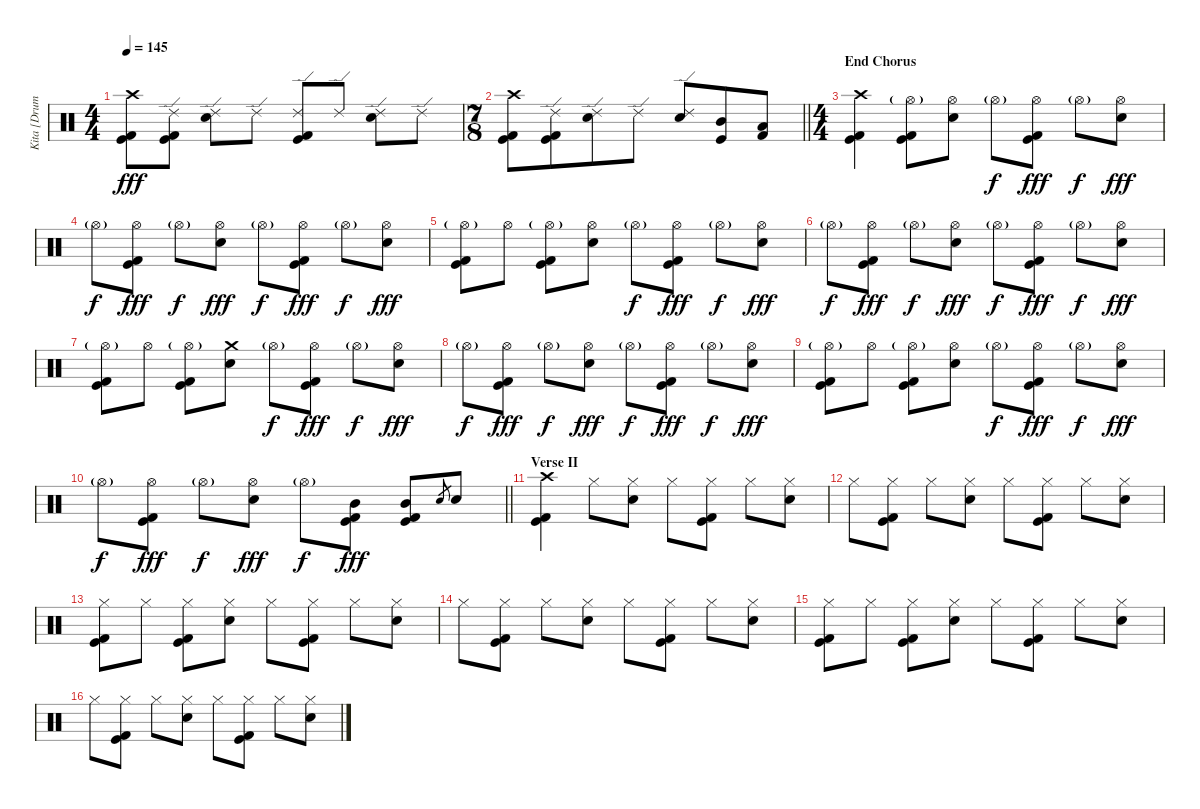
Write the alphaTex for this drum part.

\track ("Kita [Drums]" "Kita [Drum") {instrument percussion}
\staff {score}
\articulation defaults
\ts (4 4)
\tempo 145
\clef neutral
\ks c
("Crash high (hit)" "Kick (hit)" "Kick (hit) 2").8{dy fff} ("Ride (edge) 2" "Kick (hit)" "Kick (hit) 2").8 ("Ride (edge) 2" "Electric Snare (hit)").8 "Ride (edge) 2".8 ("Ride (edge) 2" "Kick (hit)" "Kick (hit) 2").8 "Ride (edge) 2".8 ("Ride (edge) 2" "Electric Snare (hit)").8 "Ride (edge) 2".8 |
\ts (7 8)
\barLineRight lightlight
("Crash high (hit)" "Kick (hit)" "Kick (hit) 2").8 ("Ride (edge) 2" "Kick (hit)" "Kick (hit) 2").8 ("Ride (edge) 2" "Electric Snare (hit)").8 "Ride (edge) 2".8 ("Ride (edge) 2" "Electric Snare (hit)").8 ("Mid Tom (hit)" "Kick (hit)").8 ("Low Tom (hit)" "Kick (hit) 2").8 |
\ts (4 4)
\section ("" "End Chorus")
("Crash high (hit)" "Kick (hit)" "Kick (hit) 2").4 ("Hi-Hat (open)"{g} "Kick (hit)" "Kick (hit) 2").8 ("Hi-Hat (open)" "Electric Snare (hit)").8 "Hi-Hat (open)"{g}.8{dy f} ("Hi-Hat (open)" "Kick (hit)" "Kick (hit) 2").8{dy fff} "Hi-Hat (open)"{g}.8{dy f} ("Hi-Hat (open)" "Electric Snare (hit)").8{dy fff} |
"Hi-Hat (open)"{g}.8{dy f} ("Hi-Hat (open)" "Kick (hit)" "Kick (hit) 2").8{dy fff} "Hi-Hat (open)"{g}.8{dy f} ("Hi-Hat (open)" "Electric Snare (hit)").8{dy fff} "Hi-Hat (open)"{g}.8{dy f} ("Hi-Hat (open)" "Kick (hit)" "Kick (hit) 2").8{dy fff} "Hi-Hat (open)"{g}.8{dy f} ("Hi-Hat (open)" "Electric Snare (hit)").8{dy fff} |
("Hi-Hat (open)"{g} "Kick (hit)" "Kick (hit) 2").8 "Hi-Hat (open)".8 ("Hi-Hat (open)"{g} "Kick (hit)" "Kick (hit) 2").8 ("Hi-Hat (open)" "Electric Snare (hit)").8 "Hi-Hat (open)"{g}.8{dy f} ("Hi-Hat (open)" "Kick (hit)" "Kick (hit) 2").8{dy fff} "Hi-Hat (open)"{g}.8{dy f} ("Hi-Hat (open)" "Electric Snare (hit)").8{dy fff} |
"Hi-Hat (open)"{g}.8{dy f} ("Hi-Hat (open)" "Kick (hit)" "Kick (hit) 2").8{dy fff} "Hi-Hat (open)"{g}.8{dy f} ("Hi-Hat (open)" "Electric Snare (hit)").8{dy fff} "Hi-Hat (open)"{g}.8{dy f} ("Hi-Hat (open)" "Kick (hit)" "Kick (hit) 2").8{dy fff} "Hi-Hat (open)"{g}.8{dy f} ("Hi-Hat (open)" "Electric Snare (hit)").8{dy fff} |
("Hi-Hat (open)"{g} "Kick (hit)" "Kick (hit) 2").8 "Hi-Hat (open)".8 ("Hi-Hat (open)"{g} "Kick (hit)" "Kick (hit) 2").8 ("Crash medium (hit)" "Electric Snare (hit)").8 "Hi-Hat (open)"{g}.8{dy f} ("Hi-Hat (open)" "Kick (hit)" "Kick (hit) 2").8{dy fff} "Hi-Hat (open)"{g}.8{dy f} ("Hi-Hat (open)" "Electric Snare (hit)").8{dy fff} |
"Hi-Hat (open)"{g}.8{dy f} ("Hi-Hat (open)" "Kick (hit)" "Kick (hit) 2").8{dy fff} "Hi-Hat (open)"{g}.8{dy f} ("Hi-Hat (open)" "Electric Snare (hit)").8{dy fff} "Hi-Hat (open)"{g}.8{dy f} ("Hi-Hat (open)" "Kick (hit)" "Kick (hit) 2").8{dy fff} "Hi-Hat (open)"{g}.8{dy f} ("Hi-Hat (open)" "Electric Snare (hit)").8{dy fff} |
("Hi-Hat (open)"{g} "Kick (hit)" "Kick (hit) 2").8 "Hi-Hat (open)".8 ("Hi-Hat (open)"{g} "Kick (hit)" "Kick (hit) 2").8 ("Hi-Hat (open)" "Electric Snare (hit)").8 "Hi-Hat (open)"{g}.8{dy f} ("Hi-Hat (open)" "Kick (hit)" "Kick (hit) 2").8{dy fff} "Hi-Hat (open)"{g}.8{dy f} ("Hi-Hat (open)" "Electric Snare (hit)").8{dy fff} |
\barLineRight lightlight "Hi-Hat (open)"{g}.8{dy f}
("Hi-Hat (open)" "Kick (hit)" "Kick (hit) 2").8{dy fff} "Hi-Hat (open)"{g}.8{dy f} ("Hi-Hat (open)" "Electric Snare (hit)").8{dy fff} "Hi-Hat (open)"{g}.8{dy f} ("Mid Tom (hit)" "Kick (hit)" "Kick (hit) 2").8{dy fff} ("Mid Tom (hit)" "Kick (hit)" "Kick (hit) 2").8 "Electric Snare (hit)".8{gr} "Electric Snare (hit)".8 |
\section ("" "Verse II")
("Crash high (hit)" "Kick (hit)" "Kick (hit) 2").4 "Hi-Hat (closed)".8 ("Hi-Hat (closed)" "Electric Snare (hit)").8 "Hi-Hat (closed)".8 ("Hi-Hat (closed)" "Kick (hit)" "Kick (hit) 2").8 "Hi-Hat (closed)".8 ("Hi-Hat (closed)" "Electric Snare (hit)").8 |
"Hi-Hat (closed)".8 ("Hi-Hat (closed)" "Kick (hit)" "Kick (hit) 2").8 "Hi-Hat (closed)".8 ("Hi-Hat (closed)" "Electric Snare (hit)").8 "Hi-Hat (closed)".8 ("Hi-Hat (closed)" "Kick (hit)" "Kick (hit) 2").8 "Hi-Hat (closed)".8 ("Hi-Hat (closed)" "Electric Snare (hit)").8 |
("Hi-Hat (closed)" "Kick (hit)" "Kick (hit) 2").8 "Hi-Hat (closed)".8 ("Hi-Hat (closed)" "Kick (hit)" "Kick (hit) 2").8 ("Hi-Hat (closed)" "Electric Snare (hit)").8 "Hi-Hat (closed)".8 ("Hi-Hat (closed)" "Kick (hit)" "Kick (hit) 2").8 "Hi-Hat (closed)".8 ("Hi-Hat (closed)" "Electric Snare (hit)").8 |
"Hi-Hat (closed)".8 ("Hi-Hat (closed)" "Kick (hit)" "Kick (hit) 2").8 "Hi-Hat (closed)".8 ("Hi-Hat (closed)" "Electric Snare (hit)").8 "Hi-Hat (closed)".8 ("Hi-Hat (closed)" "Kick (hit)" "Kick (hit) 2").8 "Hi-Hat (closed)".8 ("Hi-Hat (closed)" "Electric Snare (hit)").8 |
("Hi-Hat (closed)" "Kick (hit)" "Kick (hit) 2").8 "Hi-Hat (closed)".8 ("Hi-Hat (closed)" "Kick (hit)" "Kick (hit) 2").8 ("Hi-Hat (closed)" "Electric Snare (hit)").8 "Hi-Hat (closed)".8 ("Hi-Hat (closed)" "Kick (hit)" "Kick (hit) 2").8 "Hi-Hat (closed)".8 ("Hi-Hat (closed)" "Electric Snare (hit)").8 |
"Hi-Hat (closed)".8 ("Hi-Hat (closed)" "Kick (hit)" "Kick (hit) 2").8 "Hi-Hat (closed)".8 ("Hi-Hat (closed)" "Electric Snare (hit)").8 "Hi-Hat (closed)".8 ("Hi-Hat (closed)" "Kick (hit)" "Kick (hit) 2").8 "Hi-Hat (closed)".8 ("Hi-Hat (closed)" "Electric Snare (hit)").8
